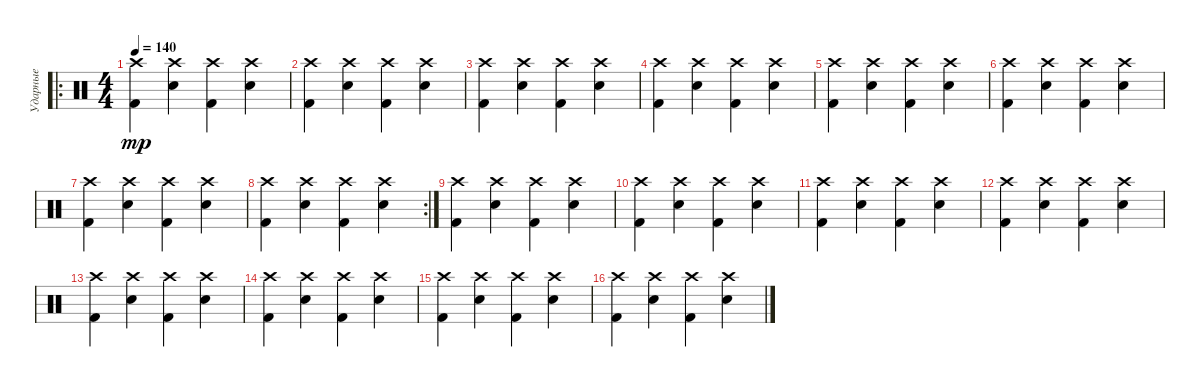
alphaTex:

\track ("Ударные" "Ударные") {instrument percussion}
\staff {score}
\articulation defaults
\ro
\ts (4 4)
\tempo 140
\clef neutral
\ks c
("Crash high (hit)" "Kick (hit) 2").4{dy mp} ("Crash high (hit)" "Snare (hit) 2").4 ("Crash high (hit)" "Kick (hit) 2").4 ("Crash high (hit)" "Snare (hit) 2").4 |
("Crash high (hit)" "Kick (hit) 2").4 ("Crash high (hit)" "Snare (hit) 2").4 ("Crash high (hit)" "Kick (hit) 2").4 ("Crash high (hit)" "Snare (hit) 2").4 |
("Crash high (hit)" "Kick (hit) 2").4 ("Crash high (hit)" "Snare (hit) 2").4 ("Crash high (hit)" "Kick (hit) 2").4 ("Crash high (hit)" "Snare (hit) 2").4 |
("Crash high (hit)" "Kick (hit) 2").4 ("Crash high (hit)" "Snare (hit) 2").4 ("Crash high (hit)" "Kick (hit) 2").4 ("Crash high (hit)" "Snare (hit) 2").4 |
("Crash high (hit)" "Kick (hit) 2").4 ("Crash high (hit)" "Snare (hit) 2").4 ("Crash high (hit)" "Kick (hit) 2").4 ("Crash high (hit)" "Snare (hit) 2").4 |
("Crash high (hit)" "Kick (hit) 2").4 ("Crash high (hit)" "Snare (hit) 2").4 ("Crash high (hit)" "Kick (hit) 2").4 ("Crash high (hit)" "Snare (hit) 2").4 |
("Crash high (hit)" "Kick (hit) 2").4 ("Crash high (hit)" "Snare (hit) 2").4 ("Crash high (hit)" "Kick (hit) 2").4 ("Crash high (hit)" "Snare (hit) 2").4 |
\rc 2
("Crash high (hit)" "Kick (hit) 2").4 ("Crash high (hit)" "Snare (hit) 2").4 ("Crash high (hit)" "Kick (hit) 2").4 ("Crash high (hit)" "Snare (hit) 2").4 |
("Crash high (hit)" "Kick (hit) 2").4 ("Crash high (hit)" "Snare (hit) 2").4 ("Crash high (hit)" "Kick (hit) 2").4 ("Crash high (hit)" "Snare (hit) 2").4 |
("Crash high (hit)" "Kick (hit) 2").4 ("Crash high (hit)" "Snare (hit) 2").4 ("Crash high (hit)" "Kick (hit) 2").4 ("Crash high (hit)" "Snare (hit) 2").4 |
("Crash high (hit)" "Kick (hit) 2").4 ("Crash high (hit)" "Snare (hit) 2").4 ("Crash high (hit)" "Kick (hit) 2").4 ("Crash high (hit)" "Snare (hit) 2").4 |
("Crash high (hit)" "Kick (hit) 2").4 ("Crash high (hit)" "Snare (hit) 2").4 ("Crash high (hit)" "Kick (hit) 2").4 ("Crash high (hit)" "Snare (hit) 2").4 |
("Crash high (hit)" "Kick (hit) 2").4 ("Crash high (hit)" "Snare (hit) 2").4 ("Crash high (hit)" "Kick (hit) 2").4 ("Crash high (hit)" "Snare (hit) 2").4 |
("Crash high (hit)" "Kick (hit) 2").4 ("Crash high (hit)" "Snare (hit) 2").4 ("Crash high (hit)" "Kick (hit) 2").4 ("Crash high (hit)" "Snare (hit) 2").4 |
("Crash high (hit)" "Kick (hit) 2").4 ("Crash high (hit)" "Snare (hit) 2").4 ("Crash high (hit)" "Kick (hit) 2").4 ("Crash high (hit)" "Snare (hit) 2").4 |
("Crash high (hit)" "Kick (hit) 2").4 ("Crash high (hit)" "Snare (hit) 2").4 ("Crash high (hit)" "Kick (hit) 2").4 ("Crash high (hit)" "Snare (hit) 2").4
